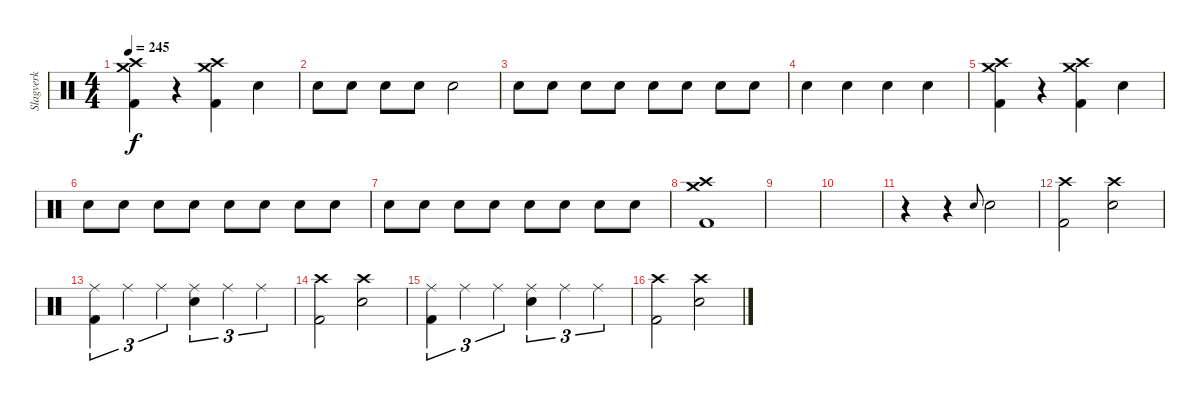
\track ("Slagverk" "Slagverk") {instrument percussion}
\staff {score}
\articulation defaults
\ts (4 4)
\tempo 245
\clef neutral
\ks c
("Crash medium (hit)" "Crash high (hit)" "Kick (hit) 2").4{dy f} r.4 ("Crash medium (hit)" "Crash high (hit)" "Kick (hit) 2").4 "Snare (hit) 2".4 |
"Snare (hit) 2".8 "Snare (hit) 2".8 "Snare (hit) 2".8 "Snare (hit) 2".8 "Snare (hit) 2".2 |
"Snare (hit) 2".8 "Snare (hit) 2".8 "Snare (hit) 2".8 "Snare (hit) 2".8 "Snare (hit) 2".8 "Snare (hit) 2".8 "Snare (hit) 2".8 "Snare (hit) 2".8 |
"Snare (hit) 2".4 "Snare (hit) 2".4 "Snare (hit) 2".4 "Snare (hit) 2".4 |
("Crash medium (hit)" "Crash high (hit)" "Kick (hit) 2").4 r.4 ("Crash medium (hit)" "Crash high (hit)" "Kick (hit) 2").4 "Snare (hit) 2".4 |
"Snare (hit) 2".8 "Snare (hit) 2".8 "Snare (hit) 2".8 "Snare (hit) 2".8 "Snare (hit) 2".8 "Snare (hit) 2".8 "Snare (hit) 2".8 "Snare (hit) 2".8 |
"Snare (hit) 2".8 "Snare (hit) 2".8 "Snare (hit) 2".8 "Snare (hit) 2".8 "Snare (hit) 2".8 "Snare (hit) 2".8 "Snare (hit) 2".8 "Snare (hit) 2".8 |
("Crash high (hit)" "Crash medium (hit)" "Kick (hit) 2").1 |
|
|
r.4 r.4 "Snare (hit) 2".8{gr onbeat} "Snare (hit) 2".2 |
("Crash high (hit)" "Kick (hit) 2").2 ("Crash high (hit)" "Snare (hit) 2").2 |
("Ride (middle)" "Kick (hit) 2").4{tu (3 2)} "Ride (middle)".4{tu (3 2)} "Ride (middle)".4{tu (3 2)} ("Ride (middle)" "Snare (hit) 2").4{tu (3 2)} "Ride (middle)".4{tu (3 2)} "Ride (middle)".4{tu (3 2)} |
("Crash high (hit)" "Kick (hit) 2").2 ("Crash high (hit)" "Snare (hit) 2").2 |
("Ride (middle)" "Kick (hit) 2").4{tu (3 2)} "Ride (middle)".4{tu (3 2)} "Ride (middle)".4{tu (3 2)} ("Ride (middle)" "Snare (hit) 2").4{tu (3 2)} "Ride (middle)".4{tu (3 2)} "Ride (middle)".4{tu (3 2)} |
("Crash high (hit)" "Kick (hit) 2").2 ("Crash high (hit)" "Snare (hit) 2").2
